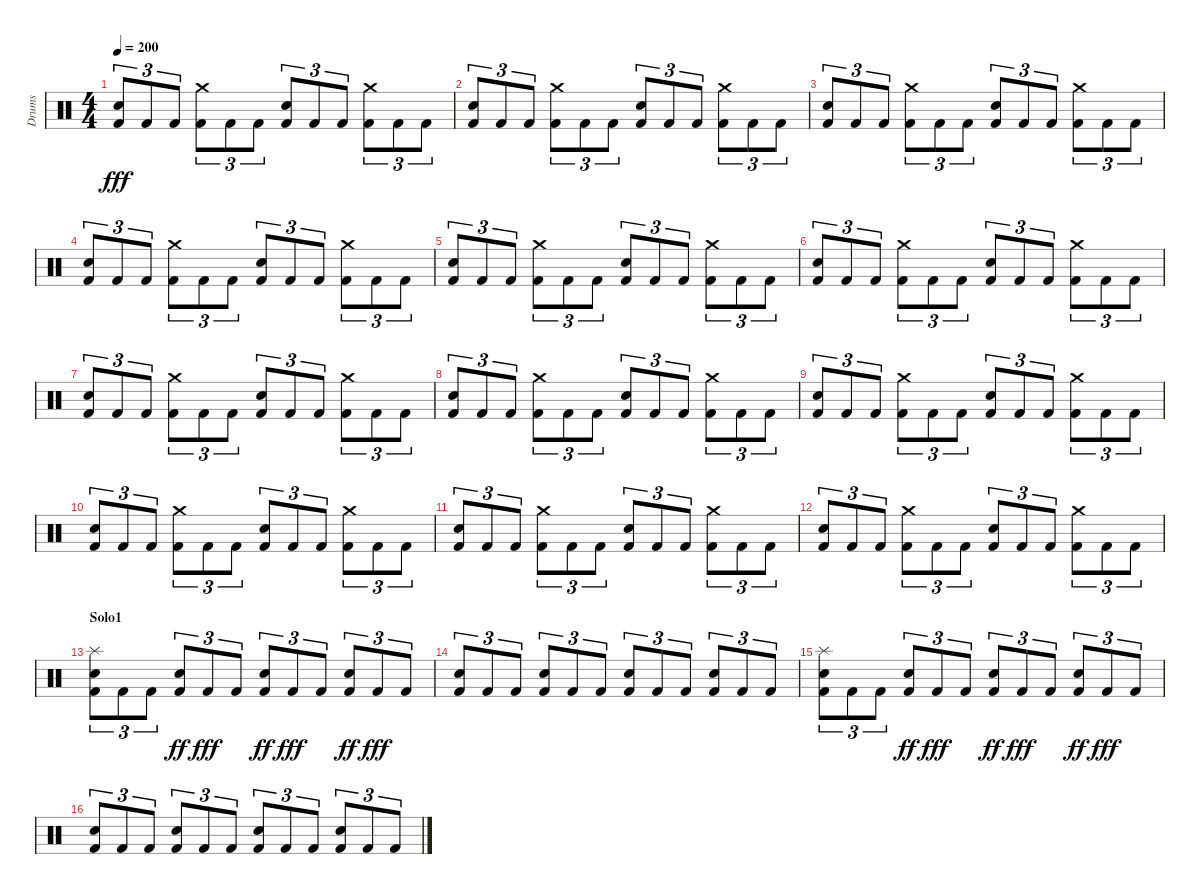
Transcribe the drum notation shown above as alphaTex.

\track ("Drums" "Drums") {instrument percussion}
\staff {score}
\articulation defaults
\ts (4 4)
\tempo 200
\clef neutral
\ks c
("Electric Snare (hit)" "Kick (hit) 2").8{tu (3 2) dy fff} "Kick (hit) 2".8{tu (3 2)} "Kick (hit) 2".8{tu (3 2)} ("Crash medium (hit)" "Kick (hit) 2").8{tu (3 2)} "Kick (hit) 2".8{tu (3 2)} "Kick (hit) 2".8{tu (3 2)} ("Electric Snare (hit)" "Kick (hit) 2").8{tu (3 2)} "Kick (hit) 2".8{tu (3 2)} "Kick (hit) 2".8{tu (3 2)} ("Crash medium (hit)" "Kick (hit) 2").8{tu (3 2)} "Kick (hit) 2".8{tu (3 2)} "Kick (hit) 2".8{tu (3 2)} |
("Electric Snare (hit)" "Kick (hit) 2").8{tu (3 2)} "Kick (hit) 2".8{tu (3 2)} "Kick (hit) 2".8{tu (3 2)} ("Crash medium (hit)" "Kick (hit) 2").8{tu (3 2)} "Kick (hit) 2".8{tu (3 2)} "Kick (hit) 2".8{tu (3 2)} ("Electric Snare (hit)" "Kick (hit) 2").8{tu (3 2)} "Kick (hit) 2".8{tu (3 2)} "Kick (hit) 2".8{tu (3 2)} ("Crash medium (hit)" "Kick (hit) 2").8{tu (3 2)} "Kick (hit) 2".8{tu (3 2)} "Kick (hit) 2".8{tu (3 2)} |
("Electric Snare (hit)" "Kick (hit) 2").8{tu (3 2)} "Kick (hit) 2".8{tu (3 2)} "Kick (hit) 2".8{tu (3 2)} ("Crash medium (hit)" "Kick (hit) 2").8{tu (3 2)} "Kick (hit) 2".8{tu (3 2)} "Kick (hit) 2".8{tu (3 2)} ("Electric Snare (hit)" "Kick (hit) 2").8{tu (3 2)} "Kick (hit) 2".8{tu (3 2)} "Kick (hit) 2".8{tu (3 2)} ("Crash medium (hit)" "Kick (hit) 2").8{tu (3 2)} "Kick (hit) 2".8{tu (3 2)} "Kick (hit) 2".8{tu (3 2)} |
("Electric Snare (hit)" "Kick (hit) 2").8{tu (3 2)} "Kick (hit) 2".8{tu (3 2)} "Kick (hit) 2".8{tu (3 2)} ("Crash medium (hit)" "Kick (hit) 2").8{tu (3 2)} "Kick (hit) 2".8{tu (3 2)} "Kick (hit) 2".8{tu (3 2)} ("Electric Snare (hit)" "Kick (hit) 2").8{tu (3 2)} "Kick (hit) 2".8{tu (3 2)} "Kick (hit) 2".8{tu (3 2)} ("Crash medium (hit)" "Kick (hit) 2").8{tu (3 2)} "Kick (hit) 2".8{tu (3 2)} "Kick (hit) 2".8{tu (3 2)} |
("Electric Snare (hit)" "Kick (hit) 2").8{tu (3 2)} "Kick (hit) 2".8{tu (3 2)} "Kick (hit) 2".8{tu (3 2)} ("Crash medium (hit)" "Kick (hit) 2").8{tu (3 2)} "Kick (hit) 2".8{tu (3 2)} "Kick (hit) 2".8{tu (3 2)} ("Electric Snare (hit)" "Kick (hit) 2").8{tu (3 2)} "Kick (hit) 2".8{tu (3 2)} "Kick (hit) 2".8{tu (3 2)} ("Crash medium (hit)" "Kick (hit) 2").8{tu (3 2)} "Kick (hit) 2".8{tu (3 2)} "Kick (hit) 2".8{tu (3 2)} |
("Electric Snare (hit)" "Kick (hit) 2").8{tu (3 2)} "Kick (hit) 2".8{tu (3 2)} "Kick (hit) 2".8{tu (3 2)} ("Crash medium (hit)" "Kick (hit) 2").8{tu (3 2)} "Kick (hit) 2".8{tu (3 2)} "Kick (hit) 2".8{tu (3 2)} ("Electric Snare (hit)" "Kick (hit) 2").8{tu (3 2)} "Kick (hit) 2".8{tu (3 2)} "Kick (hit) 2".8{tu (3 2)} ("Crash medium (hit)" "Kick (hit) 2").8{tu (3 2)} "Kick (hit) 2".8{tu (3 2)} "Kick (hit) 2".8{tu (3 2)} |
("Electric Snare (hit)" "Kick (hit) 2").8{tu (3 2)} "Kick (hit) 2".8{tu (3 2)} "Kick (hit) 2".8{tu (3 2)} ("Crash medium (hit)" "Kick (hit) 2").8{tu (3 2)} "Kick (hit) 2".8{tu (3 2)} "Kick (hit) 2".8{tu (3 2)} ("Electric Snare (hit)" "Kick (hit) 2").8{tu (3 2)} "Kick (hit) 2".8{tu (3 2)} "Kick (hit) 2".8{tu (3 2)} ("Crash medium (hit)" "Kick (hit) 2").8{tu (3 2)} "Kick (hit) 2".8{tu (3 2)} "Kick (hit) 2".8{tu (3 2)} |
("Electric Snare (hit)" "Kick (hit) 2").8{tu (3 2)} "Kick (hit) 2".8{tu (3 2)} "Kick (hit) 2".8{tu (3 2)} ("Crash medium (hit)" "Kick (hit) 2").8{tu (3 2)} "Kick (hit) 2".8{tu (3 2)} "Kick (hit) 2".8{tu (3 2)} ("Electric Snare (hit)" "Kick (hit) 2").8{tu (3 2)} "Kick (hit) 2".8{tu (3 2)} "Kick (hit) 2".8{tu (3 2)} ("Crash medium (hit)" "Kick (hit) 2").8{tu (3 2)} "Kick (hit) 2".8{tu (3 2)} "Kick (hit) 2".8{tu (3 2)} |
("Electric Snare (hit)" "Kick (hit) 2").8{tu (3 2)} "Kick (hit) 2".8{tu (3 2)} "Kick (hit) 2".8{tu (3 2)} ("Crash medium (hit)" "Kick (hit) 2").8{tu (3 2)} "Kick (hit) 2".8{tu (3 2)} "Kick (hit) 2".8{tu (3 2)} ("Electric Snare (hit)" "Kick (hit) 2").8{tu (3 2)} "Kick (hit) 2".8{tu (3 2)} "Kick (hit) 2".8{tu (3 2)} ("Crash medium (hit)" "Kick (hit) 2").8{tu (3 2)} "Kick (hit) 2".8{tu (3 2)} "Kick (hit) 2".8{tu (3 2)} |
("Electric Snare (hit)" "Kick (hit) 2").8{tu (3 2)} "Kick (hit) 2".8{tu (3 2)} "Kick (hit) 2".8{tu (3 2)} ("Crash medium (hit)" "Kick (hit) 2").8{tu (3 2)} "Kick (hit) 2".8{tu (3 2)} "Kick (hit) 2".8{tu (3 2)} ("Electric Snare (hit)" "Kick (hit) 2").8{tu (3 2)} "Kick (hit) 2".8{tu (3 2)} "Kick (hit) 2".8{tu (3 2)} ("Crash medium (hit)" "Kick (hit) 2").8{tu (3 2)} "Kick (hit) 2".8{tu (3 2)} "Kick (hit) 2".8{tu (3 2)} |
("Electric Snare (hit)" "Kick (hit) 2").8{tu (3 2)} "Kick (hit) 2".8{tu (3 2)} "Kick (hit) 2".8{tu (3 2)} ("Crash medium (hit)" "Kick (hit) 2").8{tu (3 2)} "Kick (hit) 2".8{tu (3 2)} "Kick (hit) 2".8{tu (3 2)} ("Electric Snare (hit)" "Kick (hit) 2").8{tu (3 2)} "Kick (hit) 2".8{tu (3 2)} "Kick (hit) 2".8{tu (3 2)} ("Crash medium (hit)" "Kick (hit) 2").8{tu (3 2)} "Kick (hit) 2".8{tu (3 2)} "Kick (hit) 2".8{tu (3 2)} |
("Electric Snare (hit)" "Kick (hit) 2").8{tu (3 2)} "Kick (hit) 2".8{tu (3 2)} "Kick (hit) 2".8{tu (3 2)} ("Crash medium (hit)" "Kick (hit) 2").8{tu (3 2)} "Kick (hit) 2".8{tu (3 2)} "Kick (hit) 2".8{tu (3 2)} ("Electric Snare (hit)" "Kick (hit) 2").8{tu (3 2)} "Kick (hit) 2".8{tu (3 2)} "Kick (hit) 2".8{tu (3 2)} ("Crash medium (hit)" "Kick (hit) 2").8{tu (3 2)} "Kick (hit) 2".8{tu (3 2)} "Kick (hit) 2".8{tu (3 2)} |
\section ("" "Solo1")
("Kick (hit) 2" "Snare (hit) 2" "Splash (hit)").8{tu (3 2)} "Kick (hit) 2".8{tu (3 2)} "Kick (hit) 2".8{tu (3 2)} ("Kick (hit) 2" "Electric Snare (hit)").8{tu (3 2) dy ff} "Kick (hit) 2".8{tu (3 2) dy fff} "Kick (hit) 2".8{tu (3 2)} ("Kick (hit) 2" "Electric Snare (hit)").8{tu (3 2) dy ff} "Kick (hit) 2".8{tu (3 2) dy fff} "Kick (hit) 2".8{tu (3 2)} ("Kick (hit) 2" "Electric Snare (hit)").8{tu (3 2) dy ff} "Kick (hit) 2".8{tu (3 2) dy fff} "Kick (hit) 2".8{tu (3 2)} |
("Electric Snare (hit)" "Kick (hit) 2").8{tu (3 2)} "Kick (hit) 2".8{tu (3 2)} "Kick (hit) 2".8{tu (3 2)} ("Electric Snare (hit)" "Kick (hit) 2").8{tu (3 2)} "Kick (hit) 2".8{tu (3 2)} "Kick (hit) 2".8{tu (3 2)} ("Electric Snare (hit)" "Kick (hit) 2").8{tu (3 2)} "Kick (hit) 2".8{tu (3 2)} "Kick (hit) 2".8{tu (3 2)} ("Electric Snare (hit)" "Kick (hit) 2").8{tu (3 2)} "Kick (hit) 2".8{tu (3 2)} "Kick (hit) 2".8{tu (3 2)} |
("Kick (hit) 2" "Snare (hit) 2" "Splash (hit)").8{tu (3 2)} "Kick (hit) 2".8{tu (3 2)} "Kick (hit) 2".8{tu (3 2)} ("Kick (hit) 2" "Electric Snare (hit)").8{tu (3 2) dy ff} "Kick (hit) 2".8{tu (3 2) dy fff} "Kick (hit) 2".8{tu (3 2)} ("Kick (hit) 2" "Electric Snare (hit)").8{tu (3 2) dy ff} "Kick (hit) 2".8{tu (3 2) dy fff} "Kick (hit) 2".8{tu (3 2)} ("Kick (hit) 2" "Electric Snare (hit)").8{tu (3 2) dy ff} "Kick (hit) 2".8{tu (3 2) dy fff} "Kick (hit) 2".8{tu (3 2)} |
("Electric Snare (hit)" "Kick (hit) 2").8{tu (3 2)} "Kick (hit) 2".8{tu (3 2)} "Kick (hit) 2".8{tu (3 2)} ("Electric Snare (hit)" "Kick (hit) 2").8{tu (3 2)} "Kick (hit) 2".8{tu (3 2)} "Kick (hit) 2".8{tu (3 2)} ("Electric Snare (hit)" "Kick (hit) 2").8{tu (3 2)} "Kick (hit) 2".8{tu (3 2)} "Kick (hit) 2".8{tu (3 2)} ("Electric Snare (hit)" "Kick (hit) 2").8{tu (3 2)} "Kick (hit) 2".8{tu (3 2)} "Kick (hit) 2".8{tu (3 2)}
